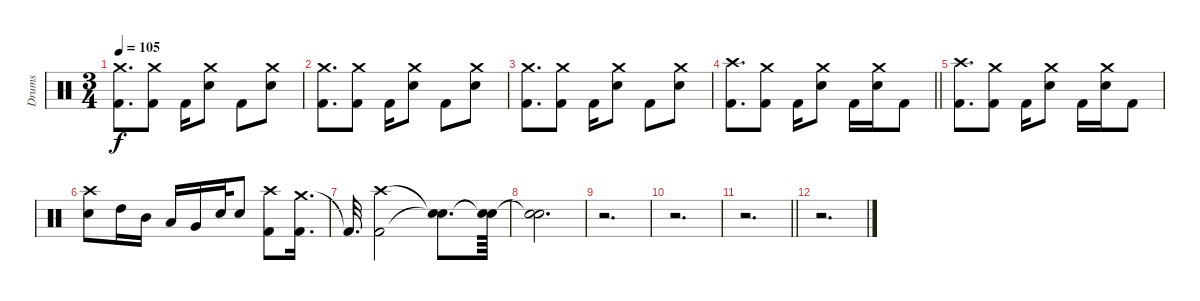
\track ("Drums" "Drums") {instrument percussion}
\staff {score}
\articulation defaults
\ts (3 4)
\tempo 105
\clef neutral
\ks c
("Crash medium (hit)" "Kick (hit) 2").8{d dy f} ("Crash medium (hit)" "Kick (hit) 2").8 "Kick (hit) 2".16 ("Crash medium (hit)" "Electric Snare (hit)").8 "Kick (hit) 2".8 ("Crash medium (hit)" "Electric Snare (hit)").8 |
("Crash medium (hit)" "Kick (hit) 2").8{d} ("Crash medium (hit)" "Kick (hit) 2").8 "Kick (hit) 2".16 ("Crash medium (hit)" "Electric Snare (hit)").8 "Kick (hit) 2".8 ("Crash medium (hit)" "Electric Snare (hit)").8 |
("Crash medium (hit)" "Kick (hit) 2").8{d} ("Crash medium (hit)" "Kick (hit) 2").8 "Kick (hit) 2".16 ("Crash medium (hit)" "Electric Snare (hit)").8 "Kick (hit) 2".8 ("Crash medium (hit)" "Electric Snare (hit)").8 |
\barLineRight lightlight
("Crash high (hit)" "Kick (hit) 2").8{d} ("Crash medium (hit)" "Kick (hit) 2").8 "Kick (hit) 2".16 ("Crash medium (hit)" "Electric Snare (hit)").8 "Kick (hit) 2".16 ("Crash medium (hit)" "Electric Snare (hit)").16 "Kick (hit) 2".8 |
("Crash high (hit)" "Kick (hit) 2").8{d} ("Crash medium (hit)" "Kick (hit) 2").8 "Kick (hit) 2".16 ("Crash medium (hit)" "Electric Snare (hit)").8 "Kick (hit) 2".16 ("Crash medium (hit)" "Electric Snare (hit)").16 "Kick (hit) 2".8 |
("Crash high (hit)" "Electric Snare (hit)").8 "High Tom (hit)".16 "Mid Tom (hit)".16 "Low Tom (hit)".16 "Very Low Tom (hit)".16 "Electric Snare (hit)".32 "Electric Snare (hit)".8 ("Crash high (hit)" "Kick (hit) 2").8 ("Crash medium (hit)" "Kick (hit) 2").16{d} |
"Kick (hit) 2"{t}.32{d} ("Crash high (hit)" "Kick (hit) 2").2 ("Snare (hit)"{t} "Snare (hit)"{t}).8{d} ("Snare (hit)"{t} "Snare (hit)"{t}).64 |
("Snare (hit)"{t} "Snare (hit)"{t}).2{d} |
r.2{d} |
r.2{d} |
\barLineRight lightlight
r.2{d} |
r.2{d}
